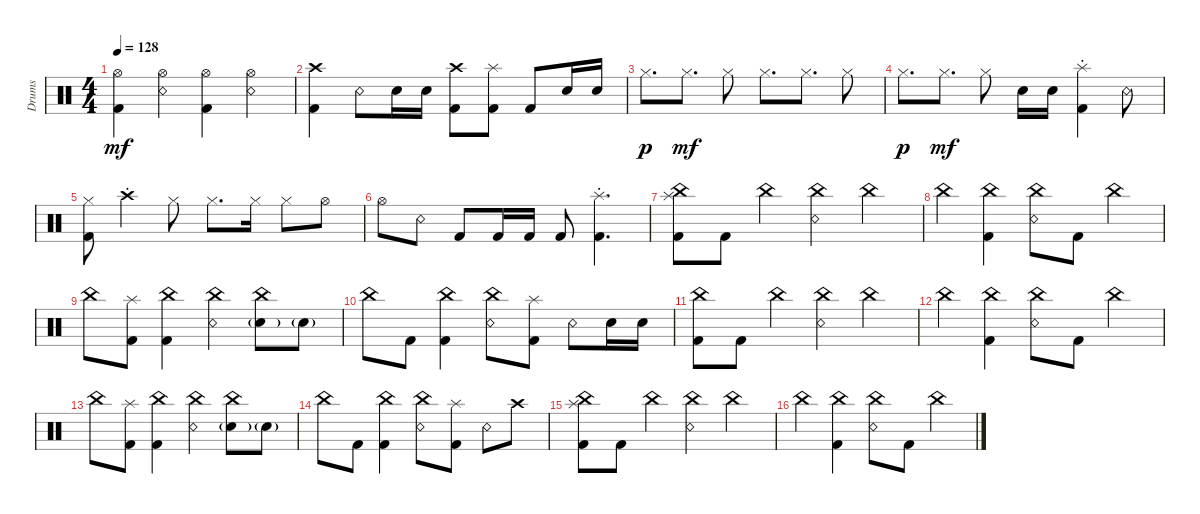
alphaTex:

\track ("Drums" "Drums") {instrument percussion}
\staff {score}
\articulation defaults
\ts (4 4)
\tempo 128
\clef neutral
\ks c
("Hi-Hat (open)" "Kick (hit) 2").4{dy mf} ("Hi-Hat (open)" "Snare (rim shot)").4 ("Hi-Hat (open)" "Kick (hit) 2").4 ("Hi-Hat (open)" "Snare (rim shot)").4 |
("Crash high (hit)" "Kick (hit) 2").4 "Snare (rim shot)".8 "Snare (hit) 2".16 "Snare (hit) 2".16 ("Crash high (hit)" "Kick (hit) 2").8 ("Splash (hit)" "Kick (hit) 2").8 "Kick (hit) 2".8 "Snare (hit) 2".16 "Snare (hit) 2".16 |
"Hi-Hat (closed)".8{d dy p} "Hi-Hat (closed)".8{d dy mf} "Hi-Hat (closed)".8 "Hi-Hat (closed)".8{d} "Hi-Hat (closed)".8{d} "Hi-Hat (closed)".8 |
"Hi-Hat (closed)".8{d dy p} "Hi-Hat (closed)".8{d dy mf} "Hi-Hat (closed)".8 "Snare (hit) 2".16 "Snare (hit) 2".16 ("Splash (hit)"{st} "Kick (hit) 2").4 "Snare (rim shot)".8 |
("Hi-Hat (closed)" "Kick (hit) 2").8 "Crash high (hit)"{st}.4 "Hi-Hat (closed)".8 "Hi-Hat (closed)".8{d} "Hi-Hat (closed)".16 "Hi-Hat (closed)".8 "Hi-Hat (open)".8 |
"Hi-Hat (open)".8 "Snare (rim shot)".8 "Kick (hit) 2".8 "Kick (hit) 2".16 "Kick (hit) 2".16 "Kick (hit) 2".8 ("Splash (hit)"{st} "Kick (hit) 2").4{d} |
("China (hit)" "Splash (hit)" "Kick (hit) 2").8 "Kick (hit) 2".8 "China (hit)".4 ("China (hit)" "Snare (rim shot)").4 "China (hit)".4 |
"China (hit)".4 ("China (hit)" "Kick (hit) 2").4 ("China (hit)" "Snare (rim shot)").8 "Kick (hit) 2".8 "China (hit)".4 |
"China (hit)".8 ("Splash (hit)" "Kick (hit) 2").8 ("China (hit)" "Kick (hit) 2").4 ("China (hit)" "Snare (rim shot)").4 ("China (hit)" "Snare (hit) 2"{g}).8 "Snare (hit) 2"{g}.8 |
"China (hit)".8 "Kick (hit) 2".8 ("China (hit)" "Kick (hit) 2").4 ("China (hit)" "Snare (rim shot)").8 ("Splash (hit)" "Kick (hit) 2").8 "Snare (rim shot)".8 "Snare (hit) 2".16 "Snare (hit) 2".16 |
("China (hit)" "Kick (hit) 2").8 "Kick (hit) 2".8 "China (hit)".4 ("China (hit)" "Snare (rim shot)").4 "China (hit)".4 |
"China (hit)".4 ("China (hit)" "Kick (hit) 2").4 ("China (hit)" "Snare (rim shot)").8 "Kick (hit) 2".8 "China (hit)".4 |
"China (hit)".8 ("Splash (hit)" "Kick (hit) 2").8 ("China (hit)" "Kick (hit) 2").4 ("China (hit)" "Snare (rim shot)").4 ("China (hit)" "Snare (hit) 2"{g}).8 "Snare (hit) 2"{g}.8 |
"China (hit)".8 "Kick (hit) 2".8 ("China (hit)" "Kick (hit) 2").4 ("China (hit)" "Snare (rim shot)").8 ("Splash (hit)" "Kick (hit) 2").8 "Snare (rim shot)".8 "Crash high (hit)".8 |
("China (hit)" "Splash (hit)" "Kick (hit) 2").8 "Kick (hit) 2".8 "China (hit)".4 ("China (hit)" "Snare (rim shot)").4 "China (hit)".4 |
"China (hit)".4 ("China (hit)" "Kick (hit) 2").4 ("China (hit)" "Snare (rim shot)").8 "Kick (hit) 2".8 "China (hit)".4
